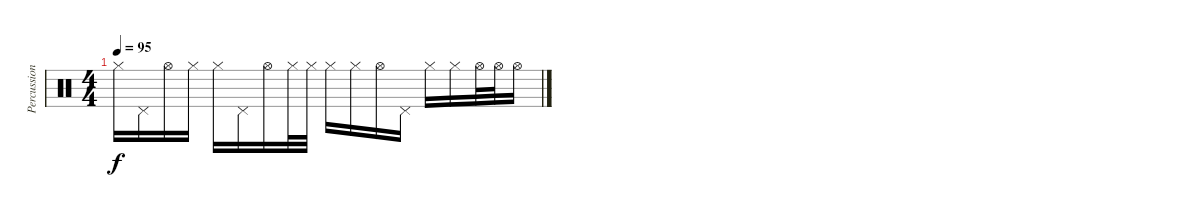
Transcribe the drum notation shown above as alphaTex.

\track ("Percussion" "Percussion") {instrument percussion}
\staff {score}
\articulation defaults
\ts (4 4)
\tempo 95
\clef neutral
\ks c "Hi-Hat (closed)".16{dy f} "Pedal Hi-Hat (hit)".16 "Hi-Hat (open)".16{volume 6} "Hi-Hat (closed)".16 "Hi-Hat (closed)".16 "Pedal Hi-Hat (hit)".16 "Hi-Hat (open)".16 "Hi-Hat (closed)".32{volume 4} "Hi-Hat (closed)".32 "Hi-Hat (closed)".16 "Hi-Hat (closed)".16 "Hi-Hat (open)".16 "Pedal Hi-Hat (hit)".16{volume 2} "Hi-Hat (closed)".16 "Hi-Hat (closed)".16 "Hi-Hat (open)".32 "Hi-Hat (open)".32 "Hi-Hat (open)".16
